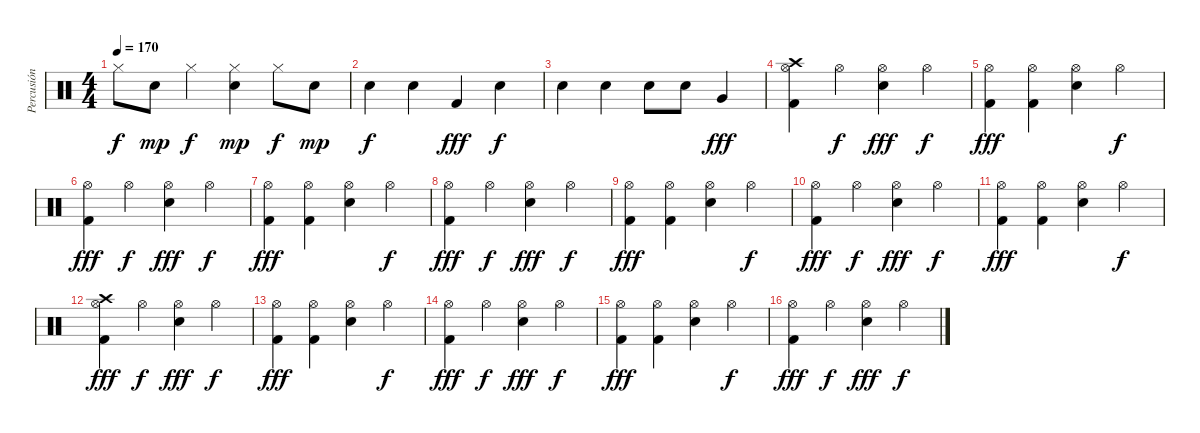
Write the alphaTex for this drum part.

\track ("Percusión" "Percusión") {instrument percussion}
\staff {score}
\articulation defaults
\ts (4 4)
\tempo 170
\clef neutral
\ks c "Hi-Hat (closed)".8{dy f} "Electric Snare (hit)".8{dy mp} "Hi-Hat (closed)".4{dy f}
("Hi-Hat (closed)" "Electric Snare (hit)").4{dy mp} "Hi-Hat (closed)".8{dy f} "Electric Snare (hit)".8{dy mp} |
"Electric Snare (hit)".4{dy f} "Electric Snare (hit)".4 "Kick (hit) 2".4{dy fff} "Electric Snare (hit)".4{dy f} |
"Electric Snare (hit)".4 "Electric Snare (hit)".4 "Electric Snare (hit)".8 "Electric Snare (hit)".8 "Very Low Tom (hit)".4{dy fff} |
("Hi-Hat (open)" "Crash high (hit)" "Kick (hit) 2").4 "Hi-Hat (open)".4{dy f} ("Hi-Hat (open)" "Electric Snare (hit)").4{dy fff} "Hi-Hat (open)".4{dy f} |
("Hi-Hat (open)" "Kick (hit) 2").4{dy fff} ("Hi-Hat (open)" "Kick (hit) 2").4 ("Hi-Hat (open)" "Electric Snare (hit)").4 "Hi-Hat (open)".4{dy f} |
("Hi-Hat (open)" "Kick (hit) 2").4{dy fff} "Hi-Hat (open)".4{dy f} ("Hi-Hat (open)" "Electric Snare (hit)").4{dy fff} "Hi-Hat (open)".4{dy f} |
("Hi-Hat (open)" "Kick (hit) 2").4{dy fff} ("Hi-Hat (open)" "Kick (hit) 2").4 ("Hi-Hat (open)" "Electric Snare (hit)").4 "Hi-Hat (open)".4{dy f} |
("Hi-Hat (open)" "Kick (hit) 2").4{dy fff} "Hi-Hat (open)".4{dy f} ("Hi-Hat (open)" "Electric Snare (hit)").4{dy fff} "Hi-Hat (open)".4{dy f} |
("Hi-Hat (open)" "Kick (hit) 2").4{dy fff} ("Hi-Hat (open)" "Kick (hit) 2").4 ("Hi-Hat (open)" "Electric Snare (hit)").4 "Hi-Hat (open)".4{dy f} |
("Hi-Hat (open)" "Kick (hit) 2").4{dy fff} "Hi-Hat (open)".4{dy f} ("Hi-Hat (open)" "Electric Snare (hit)").4{dy fff} "Hi-Hat (open)".4{dy f} |
("Hi-Hat (open)" "Kick (hit) 2").4{dy fff} ("Hi-Hat (open)" "Kick (hit) 2").4 ("Hi-Hat (open)" "Electric Snare (hit)").4 "Hi-Hat (open)".4{dy f} |
("Hi-Hat (open)" "Crash high (hit)" "Kick (hit) 2").4{dy fff} "Hi-Hat (open)".4{dy f} ("Hi-Hat (open)" "Electric Snare (hit)").4{dy fff} "Hi-Hat (open)".4{dy f} |
("Hi-Hat (open)" "Kick (hit) 2").4{dy fff} ("Hi-Hat (open)" "Kick (hit) 2").4 ("Hi-Hat (open)" "Electric Snare (hit)").4 "Hi-Hat (open)".4{dy f} |
("Hi-Hat (open)" "Kick (hit) 2").4{dy fff} "Hi-Hat (open)".4{dy f} ("Hi-Hat (open)" "Electric Snare (hit)").4{dy fff} "Hi-Hat (open)".4{dy f} |
("Hi-Hat (open)" "Kick (hit) 2").4{dy fff} ("Hi-Hat (open)" "Kick (hit) 2").4 ("Hi-Hat (open)" "Electric Snare (hit)").4 "Hi-Hat (open)".4{dy f} |
("Hi-Hat (open)" "Kick (hit) 2").4{dy fff} "Hi-Hat (open)".4{dy f} ("Hi-Hat (open)" "Electric Snare (hit)").4{dy fff} "Hi-Hat (open)".4{dy f}
